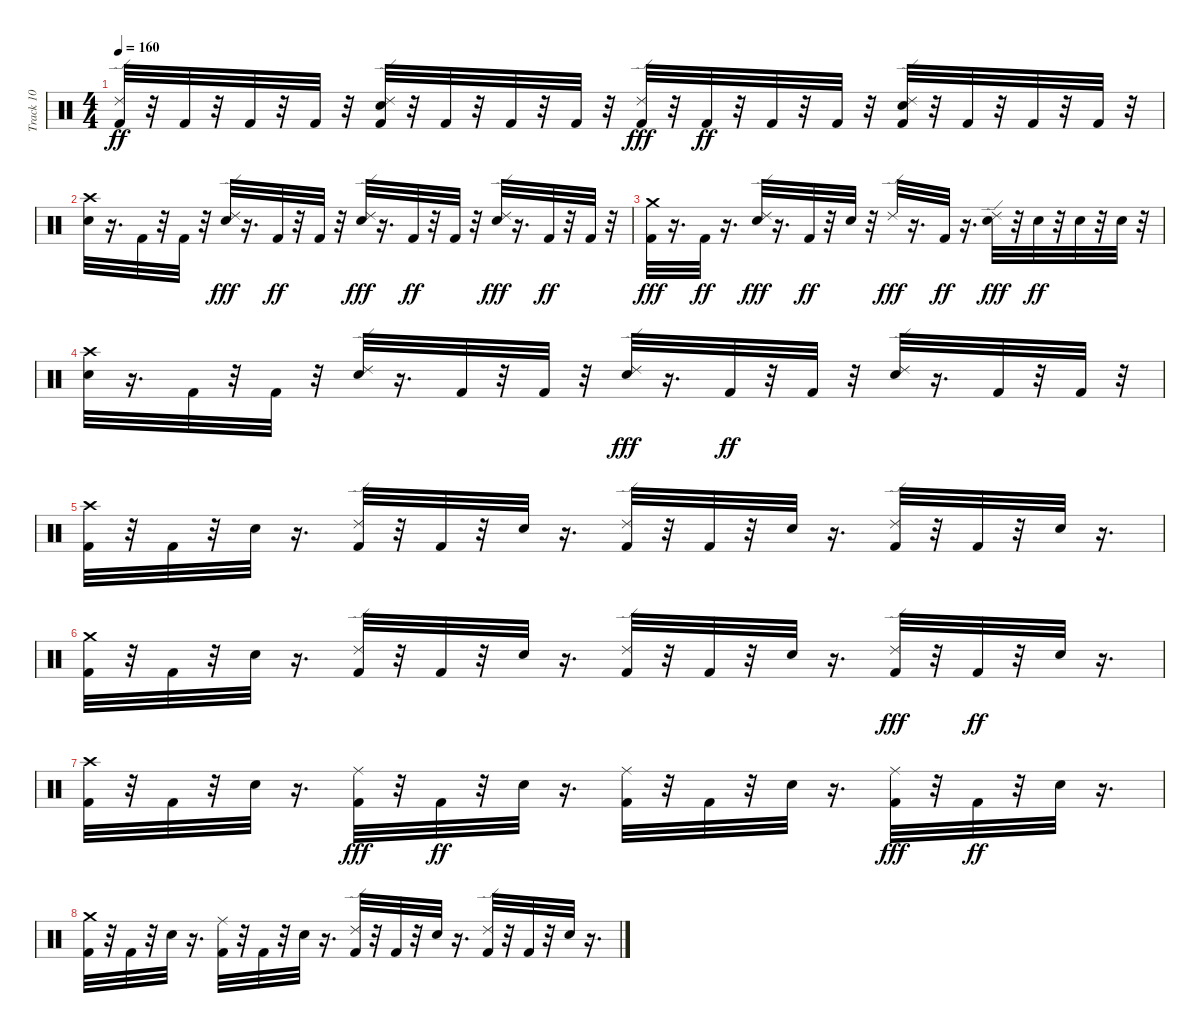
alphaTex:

\track ("Track 10" "Track 10") {instrument percussion}
\staff {score}
\articulation defaults
\ts (4 4)
\tempo 160
\clef neutral
\ks c
("Ride (edge) 2" "Kick (hit) 2").32{dy ff} r.32 "Kick (hit) 2".32 r.32 "Kick (hit) 2".32 r.32 "Kick (hit) 2".32 r.32 ("Kick (hit) 2" "Ride (edge) 2" "Electric Snare (hit)").32 r.32 "Kick (hit) 2".32 r.32 "Kick (hit) 2".32 r.32 "Kick (hit) 2".32 r.32 ("Kick (hit) 2" "Ride (edge) 2").32{dy fff} r.32 "Kick (hit) 2".32{dy ff} r.32 "Kick (hit) 2".32 r.32 "Kick (hit) 2".32 r.32 ("Kick (hit) 2" "Ride (edge) 2" "Electric Snare (hit)").32 r.32 "Kick (hit) 2".32 r.32 "Kick (hit) 2".32 r.32 "Kick (hit) 2".32 r.32 |
("Crash high (hit)" "Electric Snare (hit)").32 r.16{d} "Kick (hit) 2".32 r.32 "Kick (hit) 2".32 r.32 ("Electric Snare (hit)" "Ride (edge) 2").32{dy fff} r.16{d} "Kick (hit) 2".32{dy ff} r.32 "Kick (hit) 2".32 r.32 ("Electric Snare (hit)" "Ride (edge) 2").32{dy fff} r.16{d} "Kick (hit) 2".32{dy ff} r.32 "Kick (hit) 2".32 r.32 ("Electric Snare (hit)" "Ride (edge) 2").32{dy fff} r.16{d} "Kick (hit) 2".32{dy ff} r.32 "Kick (hit) 2".32 r.32 |
("Crash medium (hit)" "Kick (hit) 2").32{dy fff} r.16{d} "Kick (hit) 2".32{dy ff} r.16{d} ("Electric Snare (hit)" "Ride (edge) 2").32{dy fff} r.16{d} "Kick (hit) 2".32{dy ff} r.32 "Electric Snare (hit)".32 r.32 "Ride (edge) 2".32{dy fff} r.16{d} "Kick (hit) 2".32{dy ff} r.16{d} ("Electric Snare (hit)" "Ride (edge) 2").32{dy fff} r.32 "Electric Snare (hit)".32{dy ff} r.32 "Electric Snare (hit)".32 r.32 "Electric Snare (hit)".32 r.32 |
("Electric Snare (hit)" "Crash high (hit)").32 r.16{d} "Kick (hit) 2".32 r.32 "Kick (hit) 2".32 r.32 ("Ride (edge) 2" "Electric Snare (hit)").32 r.16{d} "Kick (hit) 2".32 r.32 "Kick (hit) 2".32 r.32 ("Electric Snare (hit)" "Ride (edge) 2").32{dy fff} r.16{d} "Kick (hit) 2".32{dy ff} r.32 "Kick (hit) 2".32 r.32 ("Ride (edge) 2" "Electric Snare (hit)").32 r.16{d} "Kick (hit) 2".32 r.32 "Kick (hit) 2".32 r.32 |
("Crash high (hit)" "Kick (hit) 2").32 r.32 "Kick (hit) 2".32 r.32 "Electric Snare (hit)".32 r.16{d} ("Ride (edge) 2" "Kick (hit) 2").32 r.32 "Kick (hit) 2".32 r.32 "Electric Snare (hit)".32 r.16{d} ("Ride (edge) 2" "Kick (hit) 2").32 r.32 "Kick (hit) 2".32 r.32 "Electric Snare (hit)".32 r.16{d} ("Ride (edge) 2" "Kick (hit) 2").32 r.32 "Kick (hit) 2".32 r.32 "Electric Snare (hit)".32 r.16{d} |
("Kick (hit) 2" "Crash medium (hit)").32 r.32 "Kick (hit) 2".32 r.32 "Electric Snare (hit)".32 r.16{d} ("Ride (edge) 2" "Kick (hit) 2").32 r.32 "Kick (hit) 2".32 r.32 "Electric Snare (hit)".32 r.16{d} ("Ride (edge) 2" "Kick (hit) 2").32 r.32 "Kick (hit) 2".32 r.32 "Electric Snare (hit)".32 r.16{d} ("Kick (hit) 2" "Ride (edge) 2").32{dy fff} r.32 "Kick (hit) 2".32{dy ff} r.32 "Electric Snare (hit)".32 r.16{d} |
("Crash high (hit)" "Kick (hit) 2").32 r.32 "Kick (hit) 2".32 r.32 "Electric Snare (hit)".32 r.16{d} ("Kick (hit) 2" "Ride (middle)").32{dy fff} r.32 "Kick (hit) 2".32{dy ff} r.32 "Electric Snare (hit)".32 r.16{d} ("Ride (middle)" "Kick (hit) 2").32 r.32 "Kick (hit) 2".32 r.32 "Electric Snare (hit)".32 r.16{d} ("Kick (hit) 2" "Ride (middle)").32{dy fff} r.32 "Kick (hit) 2".32{dy ff} r.32 "Electric Snare (hit)".32 r.16{d} |
("Kick (hit) 2" "Crash medium (hit)").32 r.32 "Kick (hit) 2".32 r.32 "Electric Snare (hit)".32 r.16{d} ("Ride (middle)" "Kick (hit) 2").32 r.32 "Kick (hit) 2".32 r.32 "Electric Snare (hit)".32 r.16{d} ("Ride (edge) 2" "Kick (hit) 2").32 r.32 "Kick (hit) 2".32 r.32 "Electric Snare (hit)".32 r.16{d} ("Ride (edge) 2" "Kick (hit) 2").32 r.32 "Kick (hit) 2".32 r.32 "Electric Snare (hit)".32 r.16{d}
